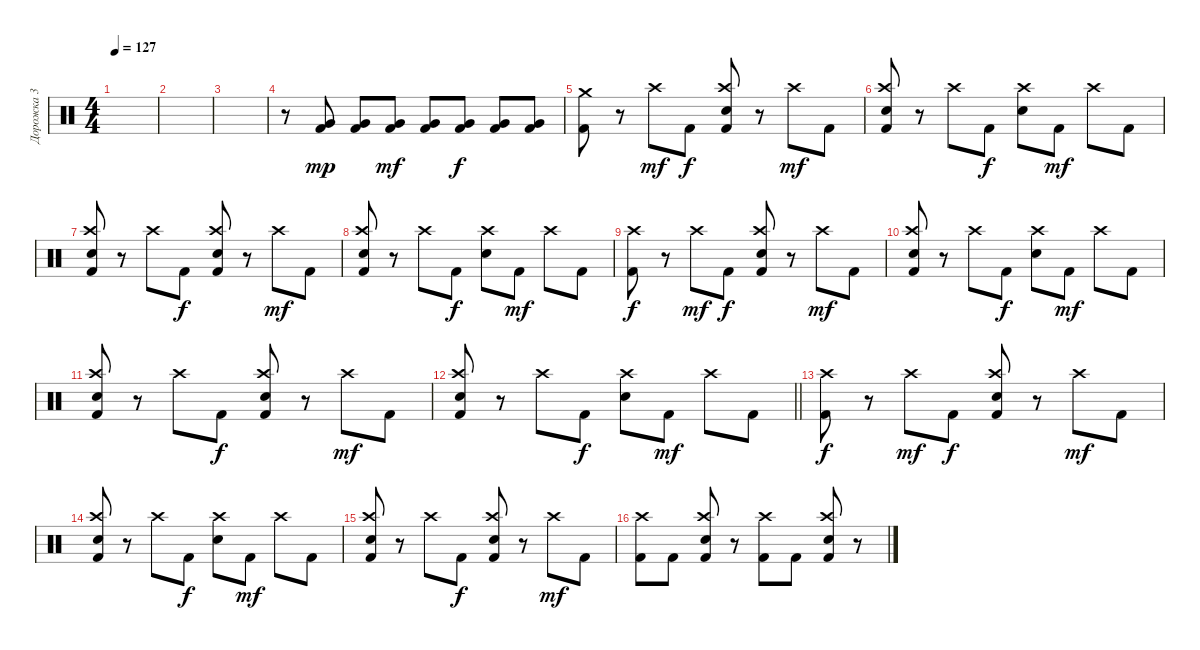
\track ("Дорожка 3" "Дорожка 3") {instrument percussion}
\staff {score}
\articulation defaults
\ts (4 4)
\tempo 127
\clef neutral
\ks c
|
|
|
r.8 ("Very Low Tom (hit)" "Kick (hit) 2").8{dy mp} ("Very Low Tom (hit)" "Kick (hit) 2").8 ("Very Low Tom (hit)" "Kick (hit) 2").8{dy mf} ("Very Low Tom (hit)" "Kick (hit) 2").8 ("Very Low Tom (hit)" "Kick (hit) 2").8{dy f} ("Very Low Tom (hit)" "Kick (hit) 2").8 ("Very Low Tom (hit)" "Kick (hit) 2").8 |
("Crash medium (hit)" "Kick (hit) 2").8 r.8 "Crash high (hit)".8{dy mf} "Kick (hit) 2".8{dy f} ("Crash high (hit)" "Electric Snare (hit)" "Kick (hit) 2").8 r.8 "Crash high (hit)".8{dy mf} "Kick (hit) 2".8 |
("Crash high (hit)" "Electric Snare (hit)" "Kick (hit) 2").8 r.8 "Crash high (hit)".8 "Kick (hit) 2".8{dy f} ("Crash high (hit)" "Electric Snare (hit)").8 "Kick (hit) 2".8{dy mf} "Crash high (hit)".8 "Kick (hit) 2".8 |
("Crash high (hit)" "Electric Snare (hit)" "Kick (hit) 2").8 r.8 "Crash high (hit)".8 "Kick (hit) 2".8{dy f} ("Crash high (hit)" "Electric Snare (hit)" "Kick (hit) 2").8 r.8 "Crash high (hit)".8{dy mf} "Kick (hit) 2".8 |
("Crash high (hit)" "Electric Snare (hit)" "Kick (hit) 2").8 r.8 "Crash high (hit)".8 "Kick (hit) 2".8{dy f} ("Crash high (hit)" "Electric Snare (hit)").8 "Kick (hit) 2".8{dy mf} "Crash high (hit)".8 "Kick (hit) 2".8 |
("Crash high (hit)" "Kick (hit) 2").8{dy f} r.8 "Crash high (hit)".8{dy mf} "Kick (hit) 2".8{dy f} ("Crash high (hit)" "Electric Snare (hit)" "Kick (hit) 2").8 r.8 "Crash high (hit)".8{dy mf} "Kick (hit) 2".8 |
("Crash high (hit)" "Electric Snare (hit)" "Kick (hit) 2").8 r.8 "Crash high (hit)".8 "Kick (hit) 2".8{dy f} ("Crash high (hit)" "Electric Snare (hit)").8 "Kick (hit) 2".8{dy mf} "Crash high (hit)".8 "Kick (hit) 2".8 |
("Crash high (hit)" "Electric Snare (hit)" "Kick (hit) 2").8 r.8 "Crash high (hit)".8 "Kick (hit) 2".8{dy f} ("Crash high (hit)" "Electric Snare (hit)" "Kick (hit) 2").8 r.8 "Crash high (hit)".8{dy mf} "Kick (hit) 2".8 |
\barLineRight lightlight
("Crash high (hit)" "Electric Snare (hit)" "Kick (hit) 2").8 r.8 "Crash high (hit)".8 "Kick (hit) 2".8{dy f} ("Crash high (hit)" "Electric Snare (hit)").8 "Kick (hit) 2".8{dy mf} "Crash high (hit)".8 "Kick (hit) 2".8 |
("Crash high (hit)" "Kick (hit) 2").8{dy f} r.8 "Crash high (hit)".8{dy mf} "Kick (hit) 2".8{dy f} ("Crash high (hit)" "Electric Snare (hit)" "Kick (hit) 2").8 r.8 "Crash high (hit)".8{dy mf} "Kick (hit) 2".8 |
("Crash high (hit)" "Electric Snare (hit)" "Kick (hit) 2").8 r.8 "Crash high (hit)".8 "Kick (hit) 2".8{dy f} ("Crash high (hit)" "Electric Snare (hit)").8 "Kick (hit) 2".8{dy mf} "Crash high (hit)".8 "Kick (hit) 2".8 |
("Crash high (hit)" "Electric Snare (hit)" "Kick (hit) 2").8 r.8 "Crash high (hit)".8 "Kick (hit) 2".8{dy f} ("Crash high (hit)" "Electric Snare (hit)" "Kick (hit) 2").8 r.8 "Crash high (hit)".8{dy mf} "Kick (hit) 2".8 |
("Crash high (hit)" "Kick (hit) 2").8 "Kick (hit) 2".8 ("Crash high (hit)" "Electric Snare (hit)" "Kick (hit) 2").8 r.8 ("Crash high (hit)" "Kick (hit) 2").8 "Kick (hit) 2".8 ("Crash high (hit)" "Electric Snare (hit)" "Kick (hit) 2").8 r.8
